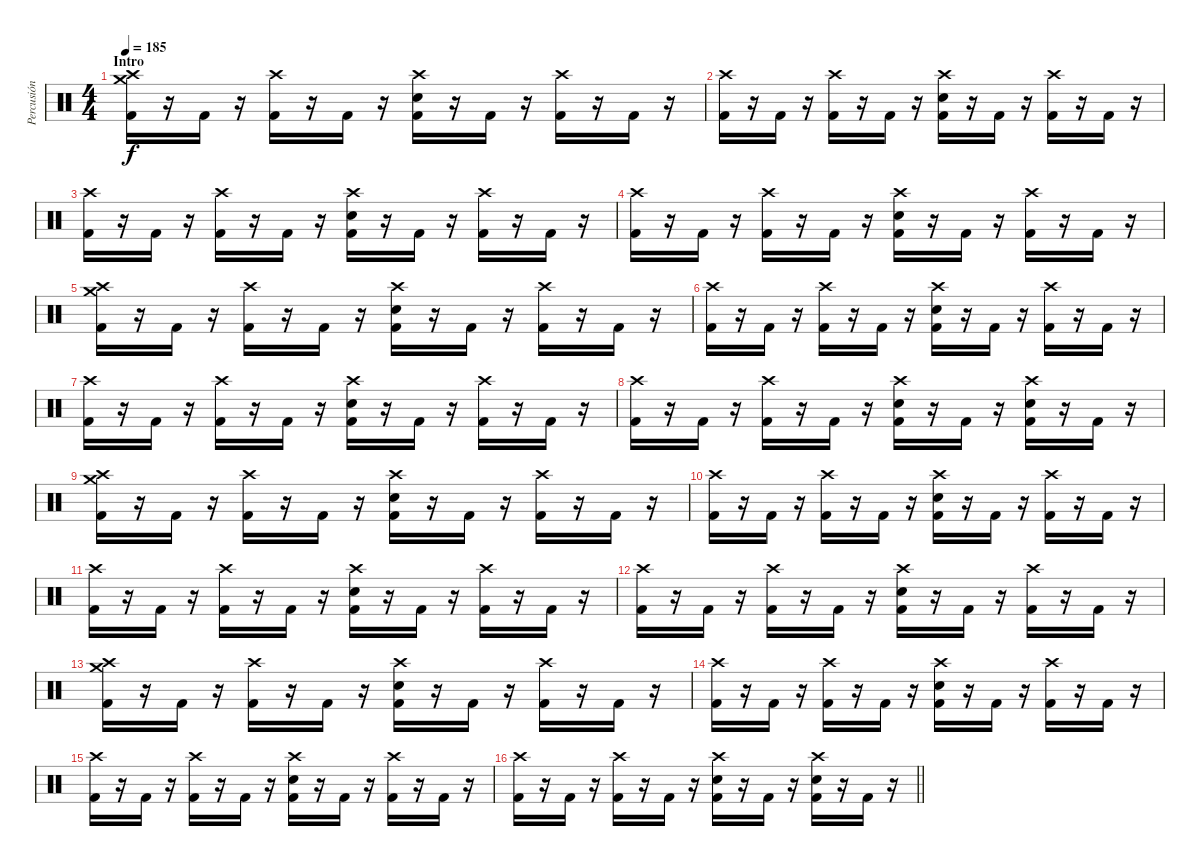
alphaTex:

\track ("Percusión" "Percusión") {instrument percussion}
\staff {score}
\articulation defaults
\ts (4 4)
\section ("" "Intro")
\tempo 185
\clef neutral
\ks c
("Crash high (hit)" "Crash medium (hit)" "Kick (hit) 2").16{dy f} r.16 "Kick (hit) 2".16 r.16 ("Crash high (hit)" "Kick (hit) 2").16 r.16 "Kick (hit) 2".16 r.16 ("Crash high (hit)" "Electric Snare (hit)" "Kick (hit) 2").16 r.16 "Kick (hit) 2".16 r.16 ("Crash high (hit)" "Kick (hit) 2").16 r.16 "Kick (hit) 2".16 r.16 |
("Crash high (hit)" "Kick (hit) 2").16 r.16 "Kick (hit) 2".16 r.16 ("Crash high (hit)" "Kick (hit) 2").16 r.16 "Kick (hit) 2".16 r.16 ("Crash high (hit)" "Electric Snare (hit)" "Kick (hit) 2").16 r.16 "Kick (hit) 2".16 r.16 ("Crash high (hit)" "Kick (hit) 2").16 r.16 "Kick (hit) 2".16 r.16 |
("Crash high (hit)" "Kick (hit) 2").16 r.16 "Kick (hit) 2".16 r.16 ("Crash high (hit)" "Kick (hit) 2").16 r.16 "Kick (hit) 2".16 r.16 ("Crash high (hit)" "Electric Snare (hit)" "Kick (hit) 2").16 r.16 "Kick (hit) 2".16 r.16 ("Crash high (hit)" "Kick (hit) 2").16 r.16 "Kick (hit) 2".16 r.16 |
("Crash high (hit)" "Kick (hit) 2").16 r.16 "Kick (hit) 2".16 r.16 ("Crash high (hit)" "Kick (hit) 2").16 r.16 "Kick (hit) 2".16 r.16 ("Crash high (hit)" "Electric Snare (hit)" "Kick (hit) 2").16 r.16 "Kick (hit) 2".16 r.16 ("Crash high (hit)" "Kick (hit) 2").16 r.16 "Kick (hit) 2".16 r.16 |
("Crash high (hit)" "Crash medium (hit)" "Kick (hit) 2").16 r.16 "Kick (hit) 2".16 r.16 ("Crash high (hit)" "Kick (hit) 2").16 r.16 "Kick (hit) 2".16 r.16 ("Crash high (hit)" "Electric Snare (hit)" "Kick (hit) 2").16 r.16 "Kick (hit) 2".16 r.16 ("Crash high (hit)" "Kick (hit) 2").16 r.16 "Kick (hit) 2".16 r.16 |
("Crash high (hit)" "Kick (hit) 2").16 r.16 "Kick (hit) 2".16 r.16 ("Crash high (hit)" "Kick (hit) 2").16 r.16 "Kick (hit) 2".16 r.16 ("Crash high (hit)" "Electric Snare (hit)" "Kick (hit) 2").16 r.16 "Kick (hit) 2".16 r.16 ("Crash high (hit)" "Kick (hit) 2").16 r.16 "Kick (hit) 2".16 r.16 |
("Crash high (hit)" "Kick (hit) 2").16 r.16 "Kick (hit) 2".16 r.16 ("Crash high (hit)" "Kick (hit) 2").16 r.16 "Kick (hit) 2".16 r.16 ("Crash high (hit)" "Electric Snare (hit)" "Kick (hit) 2").16 r.16 "Kick (hit) 2".16 r.16 ("Crash high (hit)" "Kick (hit) 2").16 r.16 "Kick (hit) 2".16 r.16 |
("Crash high (hit)" "Kick (hit) 2").16 r.16 "Kick (hit) 2".16 r.16 ("Crash high (hit)" "Kick (hit) 2").16 r.16 "Kick (hit) 2".16 r.16 ("Crash high (hit)" "Electric Snare (hit)" "Kick (hit) 2").16 r.16 "Kick (hit) 2".16 r.16 ("Crash high (hit)" "Electric Snare (hit)" "Kick (hit) 2").16 r.16 "Kick (hit) 2".16 r.16 |
("Crash high (hit)" "Crash medium (hit)" "Kick (hit) 2").16 r.16 "Kick (hit) 2".16 r.16 ("Crash high (hit)" "Kick (hit) 2").16 r.16 "Kick (hit) 2".16 r.16 ("Crash high (hit)" "Electric Snare (hit)" "Kick (hit) 2").16 r.16 "Kick (hit) 2".16 r.16 ("Crash high (hit)" "Kick (hit) 2").16 r.16 "Kick (hit) 2".16 r.16 |
("Crash high (hit)" "Kick (hit) 2").16 r.16 "Kick (hit) 2".16 r.16 ("Crash high (hit)" "Kick (hit) 2").16 r.16 "Kick (hit) 2".16 r.16 ("Crash high (hit)" "Electric Snare (hit)" "Kick (hit) 2").16 r.16 "Kick (hit) 2".16 r.16 ("Crash high (hit)" "Kick (hit) 2").16 r.16 "Kick (hit) 2".16 r.16 |
("Crash high (hit)" "Kick (hit) 2").16 r.16 "Kick (hit) 2".16 r.16 ("Crash high (hit)" "Kick (hit) 2").16 r.16 "Kick (hit) 2".16 r.16 ("Crash high (hit)" "Electric Snare (hit)" "Kick (hit) 2").16 r.16 "Kick (hit) 2".16 r.16 ("Crash high (hit)" "Kick (hit) 2").16 r.16 "Kick (hit) 2".16 r.16 |
("Crash high (hit)" "Kick (hit) 2").16 r.16 "Kick (hit) 2".16 r.16 ("Crash high (hit)" "Kick (hit) 2").16 r.16 "Kick (hit) 2".16 r.16 ("Crash high (hit)" "Electric Snare (hit)" "Kick (hit) 2").16 r.16 "Kick (hit) 2".16 r.16 ("Crash high (hit)" "Kick (hit) 2").16 r.16 "Kick (hit) 2".16 r.16 |
("Crash high (hit)" "Crash medium (hit)" "Kick (hit) 2").16 r.16 "Kick (hit) 2".16 r.16 ("Crash high (hit)" "Kick (hit) 2").16 r.16 "Kick (hit) 2".16 r.16 ("Crash high (hit)" "Electric Snare (hit)" "Kick (hit) 2").16 r.16 "Kick (hit) 2".16 r.16 ("Crash high (hit)" "Kick (hit) 2").16 r.16 "Kick (hit) 2".16 r.16 |
("Crash high (hit)" "Kick (hit) 2").16 r.16 "Kick (hit) 2".16 r.16 ("Crash high (hit)" "Kick (hit) 2").16 r.16 "Kick (hit) 2".16 r.16 ("Crash high (hit)" "Electric Snare (hit)" "Kick (hit) 2").16 r.16 "Kick (hit) 2".16 r.16 ("Crash high (hit)" "Kick (hit) 2").16 r.16 "Kick (hit) 2".16 r.16 |
("Crash high (hit)" "Kick (hit) 2").16 r.16 "Kick (hit) 2".16 r.16 ("Crash high (hit)" "Kick (hit) 2").16 r.16 "Kick (hit) 2".16 r.16 ("Crash high (hit)" "Electric Snare (hit)" "Kick (hit) 2").16 r.16 "Kick (hit) 2".16 r.16 ("Crash high (hit)" "Kick (hit) 2").16 r.16 "Kick (hit) 2".16 r.16 |
\barLineRight lightlight
("Crash high (hit)" "Kick (hit) 2").16 r.16 "Kick (hit) 2".16 r.16 ("Crash high (hit)" "Kick (hit) 2").16 r.16 "Kick (hit) 2".16 r.16 ("Crash high (hit)" "Electric Snare (hit)" "Kick (hit) 2").16 r.16 "Kick (hit) 2".16 r.16 ("Crash high (hit)" "Electric Snare (hit)" "Kick (hit) 2").16 r.16 "Kick (hit) 2".16 r.16
